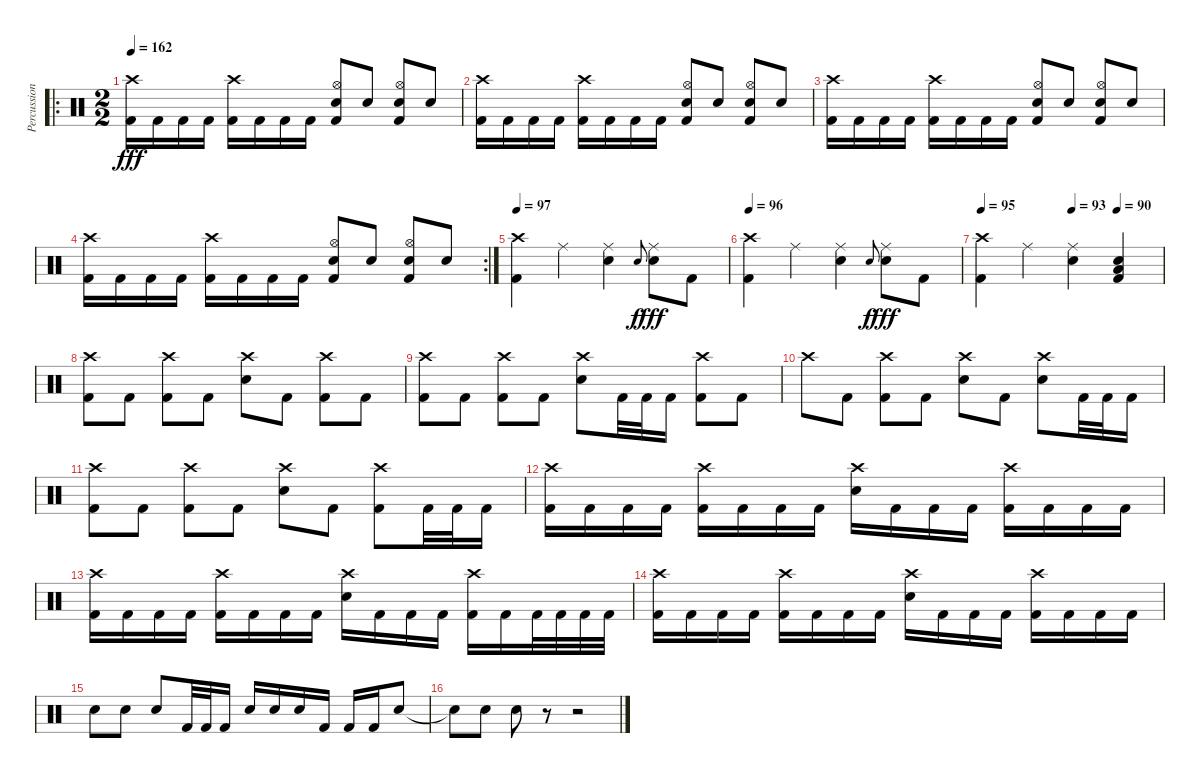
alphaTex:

\track ("Percussion" "Percussion") {instrument percussion}
\staff {score}
\articulation defaults
\ro
\ts (2 2)
\tempo 162
\clef neutral
\ks c
("Crash high (hit)" "Kick (hit) 2").16{dy fff} "Kick (hit) 2".16 "Kick (hit) 2".16 "Kick (hit) 2".16 ("Crash high (hit)" "Kick (hit) 2").16 "Kick (hit) 2".16 "Kick (hit) 2".16 "Kick (hit) 2".16 ("Hi-Hat (open)" "Snare (hit) 2" "Kick (hit) 2").8 "Snare (hit) 2".8 ("Hi-Hat (open)" "Snare (hit) 2" "Kick (hit) 2").8 "Snare (hit) 2".8 |
("Crash high (hit)" "Kick (hit) 2").16 "Kick (hit) 2".16 "Kick (hit) 2".16 "Kick (hit) 2".16 ("Crash high (hit)" "Kick (hit) 2").16 "Kick (hit) 2".16 "Kick (hit) 2".16 "Kick (hit) 2".16 ("Hi-Hat (open)" "Snare (hit) 2" "Kick (hit) 2").8 "Snare (hit) 2".8 ("Hi-Hat (open)" "Snare (hit) 2" "Kick (hit) 2").8 "Snare (hit) 2".8 |
("Crash high (hit)" "Kick (hit) 2").16 "Kick (hit) 2".16 "Kick (hit) 2".16 "Kick (hit) 2".16 ("Crash high (hit)" "Kick (hit) 2").16 "Kick (hit) 2".16 "Kick (hit) 2".16 "Kick (hit) 2".16 ("Hi-Hat (open)" "Snare (hit) 2" "Kick (hit) 2").8 "Snare (hit) 2".8 ("Hi-Hat (open)" "Snare (hit) 2" "Kick (hit) 2").8 "Snare (hit) 2".8 |
\rc 2
("Crash high (hit)" "Kick (hit) 2").16 "Kick (hit) 2".16 "Kick (hit) 2".16 "Kick (hit) 2".16 ("Crash high (hit)" "Kick (hit) 2").16 "Kick (hit) 2".16 "Kick (hit) 2".16 "Kick (hit) 2".16 ("Hi-Hat (open)" "Snare (hit) 2" "Kick (hit) 2").8 "Snare (hit) 2".8 ("Hi-Hat (open)" "Snare (hit) 2" "Kick (hit) 2").8 "Snare (hit) 2".8 |
\tempo 97
("Crash high (hit)" "Kick (hit) 2").4 "Ride (middle)".4 ("Ride (middle)" "Snare (hit) 2").4 "Snare (hit) 2".8{gr onbeat dy f} ("Ride (middle)" "Snare (hit) 2").8{dy fff} "Kick (hit) 2".8 |
\tempo 96
("Crash high (hit)" "Kick (hit) 2").4 "Ride (middle)".4 ("Ride (middle)" "Snare (hit) 2").4 "Snare (hit) 2".8{gr onbeat dy f} ("Ride (middle)" "Snare (hit) 2").8{dy fff} "Kick (hit) 2".8 |
\tempo 95
\tempo (93 0.5)
\tempo (90 0.75)
("Crash high (hit)" "Kick (hit) 2").4 "Ride (middle)".4 ("Ride (middle)" "Snare (hit) 2").4 ("Snare (hit) 2" "Low Floor Tom (hit)" "Kick (hit) 2").4 |
("Crash high (hit)" "Kick (hit) 2").8 "Kick (hit) 2".8 ("Crash high (hit)" "Kick (hit) 2").8 "Kick (hit) 2".8 ("Crash high (hit)" "Snare (hit) 2").8 "Kick (hit) 2".8 ("Crash high (hit)" "Kick (hit) 2").8 "Kick (hit) 2".8 |
("Crash high (hit)" "Kick (hit) 2").8 "Kick (hit) 2".8 ("Crash high (hit)" "Kick (hit) 2").8 "Kick (hit) 2".8 ("Crash high (hit)" "Snare (hit) 2").8 "Kick (hit) 2".32 "Kick (hit) 2".32 "Kick (hit) 2".16 ("Crash high (hit)" "Kick (hit) 2").8 "Kick (hit) 2".8 |
"Crash high (hit)".8 "Kick (hit) 2".8 ("Crash high (hit)" "Kick (hit) 2").8 "Kick (hit) 2".8 ("Crash high (hit)" "Snare (hit) 2").8 "Kick (hit) 2".8 ("Crash high (hit)" "Snare (hit) 2").8 "Kick (hit) 2".32 "Kick (hit) 2".32 "Kick (hit) 2".16 |
("Crash high (hit)" "Kick (hit) 2").8 "Kick (hit) 2".8 ("Crash high (hit)" "Kick (hit) 2").8 "Kick (hit) 2".8 ("Crash high (hit)" "Snare (hit) 2").8 "Kick (hit) 2".8 ("Crash high (hit)" "Kick (hit) 2").8 "Kick (hit) 2".32 "Kick (hit) 2".32 "Kick (hit) 2".16 |
("Crash high (hit)" "Kick (hit) 2").16 "Kick (hit) 2".16 "Kick (hit) 2".16 "Kick (hit) 2".16 ("Crash high (hit)" "Kick (hit) 2").16 "Kick (hit) 2".16 "Kick (hit) 2".16 "Kick (hit) 2".16 ("Crash high (hit)" "Snare (hit) 2").16 "Kick (hit) 2".16 "Kick (hit) 2".16 "Kick (hit) 2".16 ("Crash high (hit)" "Kick (hit) 2").16 "Kick (hit) 2".16 "Kick (hit) 2".16 "Kick (hit) 2".16 |
("Crash high (hit)" "Kick (hit) 2").16 "Kick (hit) 2".16 "Kick (hit) 2".16 "Kick (hit) 2".16 ("Crash high (hit)" "Kick (hit) 2").16 "Kick (hit) 2".16 "Kick (hit) 2".16 "Kick (hit) 2".16 ("Crash high (hit)" "Snare (hit) 2").16 "Kick (hit) 2".16 "Kick (hit) 2".16 "Kick (hit) 2".16 ("Crash high (hit)" "Kick (hit) 2").16 "Kick (hit) 2".16 "Kick (hit) 2".32 "Kick (hit) 2".32 "Kick (hit) 2".32 "Kick (hit) 2".32 |
("Crash high (hit)" "Kick (hit) 2").16 "Kick (hit) 2".16 "Kick (hit) 2".16 "Kick (hit) 2".16 ("Crash high (hit)" "Kick (hit) 2").16 "Kick (hit) 2".16 "Kick (hit) 2".16 "Kick (hit) 2".16 ("Crash high (hit)" "Snare (hit) 2").16 "Kick (hit) 2".16 "Kick (hit) 2".16 "Kick (hit) 2".16 ("Crash high (hit)" "Kick (hit) 2").16 "Kick (hit) 2".16 "Kick (hit) 2".16 "Kick (hit) 2".16 |
"Snare (hit) 2".8 "Snare (hit) 2".8 "Snare (hit) 2".8 "Kick (hit) 2".32 "Kick (hit) 2".32 "Kick (hit) 2".16 "Snare (hit) 2".16 "Snare (hit) 2".16 "Snare (hit) 2".16 "Kick (hit) 2".16 "Kick (hit) 2".16 "Kick (hit) 2".16 "Snare (hit) 2".8 |
"Snare (hit) 2"{t}.8 "Snare (hit) 2".8 "Snare (hit) 2".8 r.8 r.2
